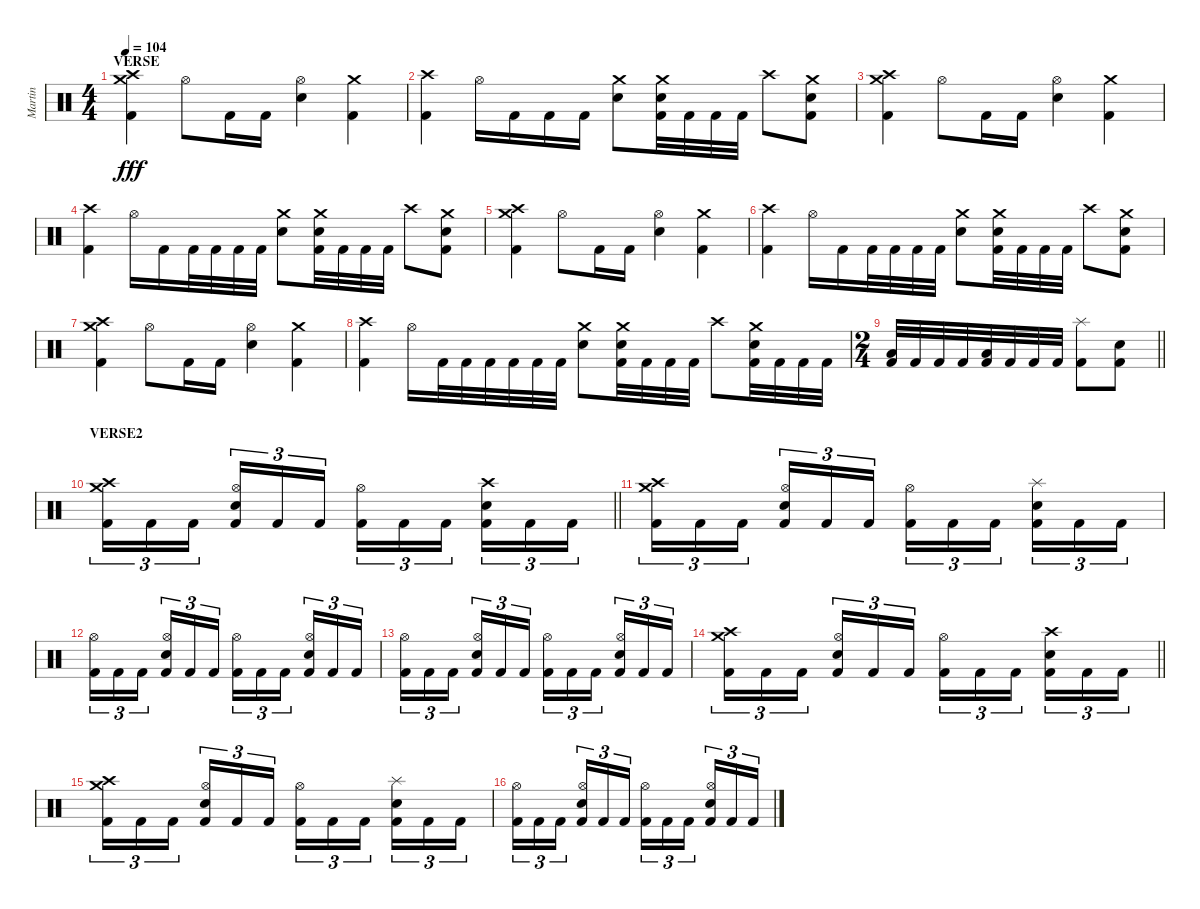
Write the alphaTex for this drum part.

\track ("Martin" "Martin") {instrument percussion}
\staff {score}
\articulation defaults
\ts (4 4)
\section ("" "VERSE")
\tempo 104
\clef neutral
\ks c
("Crash high (hit)" "Crash medium (hit)" "Kick (hit) 2").4{dy fff} "Hi-Hat (open)".8 "Kick (hit) 2".16 "Kick (hit) 2".16 ("Hi-Hat (open)" "Electric Snare (hit)").4 ("Crash medium (hit)" "Kick (hit) 2").4 |
("Crash high (hit)" "Kick (hit) 2").4 "Hi-Hat (open)".16 "Kick (hit) 2".16 "Kick (hit) 2".16 "Kick (hit) 2".16 ("Crash medium (hit)" "Electric Snare (hit)").8 ("Crash medium (hit)" "Electric Snare (hit)" "Kick (hit) 2").32 "Kick (hit) 2".32 "Kick (hit) 2".32 "Kick (hit) 2".32 "Crash high (hit)".8 ("Crash medium (hit)" "Electric Snare (hit)" "Kick (hit) 2").8 |
("Crash high (hit)" "Crash medium (hit)" "Kick (hit) 2").4 "Hi-Hat (open)".8 "Kick (hit) 2".16 "Kick (hit) 2".16 ("Hi-Hat (open)" "Electric Snare (hit)").4 ("Crash medium (hit)" "Kick (hit) 2").4 |
("Crash high (hit)" "Kick (hit) 2").4 "Hi-Hat (open)".16 "Kick (hit) 2".16 "Kick (hit) 2".32 "Kick (hit) 2".32 "Kick (hit) 2".32 "Kick (hit) 2".32 ("Crash medium (hit)" "Electric Snare (hit)").8 ("Crash medium (hit)" "Electric Snare (hit)" "Kick (hit) 2").32 "Kick (hit) 2".32 "Kick (hit) 2".32 "Kick (hit) 2".32 "Crash high (hit)".8 ("Crash medium (hit)" "Electric Snare (hit)" "Kick (hit) 2").8 |
("Crash high (hit)" "Crash medium (hit)" "Kick (hit) 2").4 "Hi-Hat (open)".8 "Kick (hit) 2".16 "Kick (hit) 2".16 ("Hi-Hat (open)" "Electric Snare (hit)").4 ("Crash medium (hit)" "Kick (hit) 2").4 |
("Crash high (hit)" "Kick (hit) 2").4 "Hi-Hat (open)".16 "Kick (hit) 2".16 "Kick (hit) 2".32 "Kick (hit) 2".32 "Kick (hit) 2".32 "Kick (hit) 2".32 ("Crash medium (hit)" "Electric Snare (hit)").8 ("Crash medium (hit)" "Electric Snare (hit)" "Kick (hit) 2").32 "Kick (hit) 2".32 "Kick (hit) 2".32 "Kick (hit) 2".32 "Crash high (hit)".8 ("Crash medium (hit)" "Electric Snare (hit)" "Kick (hit) 2").8 |
("Crash high (hit)" "Crash medium (hit)" "Kick (hit) 2").4 "Hi-Hat (open)".8 "Kick (hit) 2".16 "Kick (hit) 2".16 ("Hi-Hat (open)" "Electric Snare (hit)").4 ("Crash medium (hit)" "Kick (hit) 2").4 |
("Crash high (hit)" "Kick (hit) 2").4 "Hi-Hat (open)".16 "Kick (hit) 2".32 "Kick (hit) 2".32 "Kick (hit) 2".32 "Kick (hit) 2".32 "Kick (hit) 2".32 "Kick (hit) 2".32 ("Crash medium (hit)" "Electric Snare (hit)").8 ("Crash medium (hit)" "Electric Snare (hit)" "Kick (hit) 2").32 "Kick (hit) 2".32 "Kick (hit) 2".32 "Kick (hit) 2".32 "Crash high (hit)".8 ("Crash medium (hit)" "Electric Snare (hit)" "Kick (hit) 2").32 "Kick (hit) 2".32 "Kick (hit) 2".32 "Kick (hit) 2".32 |
\ts (2 4)
\barLineRight lightlight
("Low Floor Tom (hit)" "Kick (hit) 2").32 "Kick (hit) 2".32 "Kick (hit) 2".32 "Kick (hit) 2".32 ("Low Floor Tom (hit)" "Kick (hit) 2").32 "Kick (hit) 2".32 "Kick (hit) 2".32 "Kick (hit) 2".32 ("Splash (hit)" "Kick (hit) 2").8 ("Electric Snare (hit)" "Kick (hit) 2").8 |
\section ("" "VERSE2")
\barLineRight lightlight
("Crash high (hit)" "Crash medium (hit)" "Kick (hit) 2").16{tu (3 2)} "Kick (hit) 2".16{tu (3 2)} "Kick (hit) 2".16{tu (3 2) beam splitsecondary} ("Hi-Hat (open)" "Electric Snare (hit)" "Kick (hit) 2").16{tu (3 2)} "Kick (hit) 2".16{tu (3 2)} "Kick (hit) 2".16{tu (3 2)} ("Hi-Hat (open)" "Kick (hit) 2").16{tu (3 2)} "Kick (hit) 2".16{tu (3 2)} "Kick (hit) 2".16{tu (3 2) beam splitsecondary} ("Crash high (hit)" "Electric Snare (hit)" "Kick (hit) 2").16{tu (3 2)} "Kick (hit) 2".16{tu (3 2)} "Kick (hit) 2".16{tu (3 2)} |
("Crash high (hit)" "Crash medium (hit)" "Kick (hit) 2").16{tu (3 2)} "Kick (hit) 2".16{tu (3 2)} "Kick (hit) 2".16{tu (3 2) beam splitsecondary} ("Hi-Hat (open)" "Electric Snare (hit)" "Kick (hit) 2").16{tu (3 2)} "Kick (hit) 2".16{tu (3 2)} "Kick (hit) 2".16{tu (3 2)} ("Hi-Hat (open)" "Kick (hit) 2").16{tu (3 2)} "Kick (hit) 2".16{tu (3 2)} "Kick (hit) 2".16{tu (3 2) beam splitsecondary} ("Splash (hit)" "Electric Snare (hit)" "Kick (hit) 2").16{tu (3 2)} "Kick (hit) 2".16{tu (3 2)} "Kick (hit) 2".16{tu (3 2)} |
("Hi-Hat (open)" "Kick (hit) 2").16{tu (3 2)} "Kick (hit) 2".16{tu (3 2)} "Kick (hit) 2".16{tu (3 2) beam splitsecondary} ("Hi-Hat (open)" "Electric Snare (hit)" "Kick (hit) 2").16{tu (3 2)} "Kick (hit) 2".16{tu (3 2)} "Kick (hit) 2".16{tu (3 2)} ("Hi-Hat (open)" "Kick (hit) 2").16{tu (3 2)} "Kick (hit) 2".16{tu (3 2)} "Kick (hit) 2".16{tu (3 2) beam splitsecondary} ("Hi-Hat (open)" "Electric Snare (hit)" "Kick (hit) 2").16{tu (3 2)} "Kick (hit) 2".16{tu (3 2)} "Kick (hit) 2".16{tu (3 2)} |
("Hi-Hat (open)" "Kick (hit) 2").16{tu (3 2)} "Kick (hit) 2".16{tu (3 2)} "Kick (hit) 2".16{tu (3 2) beam splitsecondary} ("Hi-Hat (open)" "Electric Snare (hit)" "Kick (hit) 2").16{tu (3 2)} "Kick (hit) 2".16{tu (3 2)} "Kick (hit) 2".16{tu (3 2)} ("Hi-Hat (open)" "Kick (hit) 2").16{tu (3 2)} "Kick (hit) 2".16{tu (3 2)} "Kick (hit) 2".16{tu (3 2) beam splitsecondary} ("Hi-Hat (open)" "Electric Snare (hit)" "Kick (hit) 2").16{tu (3 2)} "Kick (hit) 2".16{tu (3 2)} "Kick (hit) 2".16{tu (3 2)} |
\barLineRight lightlight
("Crash high (hit)" "Crash medium (hit)" "Kick (hit) 2").16{tu (3 2)} "Kick (hit) 2".16{tu (3 2)} "Kick (hit) 2".16{tu (3 2) beam splitsecondary} ("Hi-Hat (open)" "Electric Snare (hit)" "Kick (hit) 2").16{tu (3 2)} "Kick (hit) 2".16{tu (3 2)} "Kick (hit) 2".16{tu (3 2)} ("Hi-Hat (open)" "Kick (hit) 2").16{tu (3 2)} "Kick (hit) 2".16{tu (3 2)} "Kick (hit) 2".16{tu (3 2) beam splitsecondary} ("Crash high (hit)" "Electric Snare (hit)" "Kick (hit) 2").16{tu (3 2)} "Kick (hit) 2".16{tu (3 2)} "Kick (hit) 2".16{tu (3 2)} |
("Crash high (hit)" "Crash medium (hit)" "Kick (hit) 2").16{tu (3 2)} "Kick (hit) 2".16{tu (3 2)} "Kick (hit) 2".16{tu (3 2) beam splitsecondary} ("Hi-Hat (open)" "Electric Snare (hit)" "Kick (hit) 2").16{tu (3 2)} "Kick (hit) 2".16{tu (3 2)} "Kick (hit) 2".16{tu (3 2)} ("Hi-Hat (open)" "Kick (hit) 2").16{tu (3 2)} "Kick (hit) 2".16{tu (3 2)} "Kick (hit) 2".16{tu (3 2) beam splitsecondary} ("Splash (hit)" "Electric Snare (hit)" "Kick (hit) 2").16{tu (3 2)} "Kick (hit) 2".16{tu (3 2)} "Kick (hit) 2".16{tu (3 2)} |
("Hi-Hat (open)" "Kick (hit) 2").16{tu (3 2)} "Kick (hit) 2".16{tu (3 2)} "Kick (hit) 2".16{tu (3 2) beam splitsecondary} ("Hi-Hat (open)" "Electric Snare (hit)" "Kick (hit) 2").16{tu (3 2)} "Kick (hit) 2".16{tu (3 2)} "Kick (hit) 2".16{tu (3 2)} ("Hi-Hat (open)" "Kick (hit) 2").16{tu (3 2)} "Kick (hit) 2".16{tu (3 2)} "Kick (hit) 2".16{tu (3 2) beam splitsecondary} ("Hi-Hat (open)" "Electric Snare (hit)" "Kick (hit) 2").16{tu (3 2)} "Kick (hit) 2".16{tu (3 2)} "Kick (hit) 2".16{tu (3 2)}
